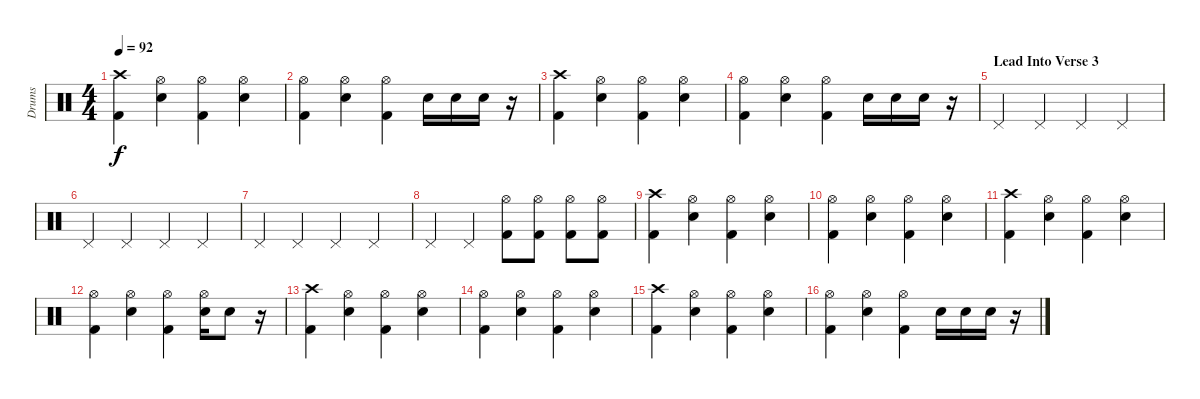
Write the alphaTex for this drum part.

\track ("Drums" "Drums") {instrument percussion}
\staff {score}
\articulation defaults
\ts (4 4)
\tempo 92
\clef neutral
\ks c
("Crash high (hit)" "Kick (hit) 2").4{dy f} ("Hi-Hat (open)" "Electric Snare (hit)").4 ("Hi-Hat (open)" "Kick (hit) 2").4 ("Hi-Hat (open)" "Electric Snare (hit)").4 |
("Hi-Hat (open)" "Kick (hit) 2").4 ("Hi-Hat (open)" "Electric Snare (hit)").4 ("Hi-Hat (open)" "Kick (hit) 2").4 "Electric Snare (hit)".16 "Electric Snare (hit)".16 "Electric Snare (hit)".16 r.16 |
("Crash high (hit)" "Kick (hit) 2").4 ("Hi-Hat (open)" "Electric Snare (hit)").4 ("Hi-Hat (open)" "Kick (hit) 2").4 ("Hi-Hat (open)" "Electric Snare (hit)").4 |
("Hi-Hat (open)" "Kick (hit) 2").4 ("Hi-Hat (open)" "Electric Snare (hit)").4 ("Hi-Hat (open)" "Kick (hit) 2").4 "Electric Snare (hit)".16 "Electric Snare (hit)".16 "Electric Snare (hit)".16 r.16 |
\section ("" "Lead Into Verse 3")
"Pedal Hi-Hat (hit)".4 "Pedal Hi-Hat (hit)".4 "Pedal Hi-Hat (hit)".4 "Pedal Hi-Hat (hit)".4 |
"Pedal Hi-Hat (hit)".4 "Pedal Hi-Hat (hit)".4 "Pedal Hi-Hat (hit)".4 "Pedal Hi-Hat (hit)".4 |
"Pedal Hi-Hat (hit)".4 "Pedal Hi-Hat (hit)".4 "Pedal Hi-Hat (hit)".4 "Pedal Hi-Hat (hit)".4 |
"Pedal Hi-Hat (hit)".4 "Pedal Hi-Hat (hit)".4 ("Hi-Hat (open)" "Kick (hit) 2").8 ("Hi-Hat (open)" "Kick (hit) 2").8 ("Hi-Hat (open)" "Kick (hit) 2").8 ("Hi-Hat (open)" "Kick (hit) 2").8 |
("Crash high (hit)" "Kick (hit) 2").4 ("Hi-Hat (open)" "Electric Snare (hit)").4 ("Hi-Hat (open)" "Kick (hit) 2").4 ("Hi-Hat (open)" "Electric Snare (hit)").4 |
("Hi-Hat (open)" "Kick (hit) 2").4 ("Hi-Hat (open)" "Electric Snare (hit)").4 ("Hi-Hat (open)" "Kick (hit) 2").4 ("Hi-Hat (open)" "Electric Snare (hit)").4 |
("Crash high (hit)" "Kick (hit) 2").4 ("Hi-Hat (open)" "Electric Snare (hit)").4 ("Hi-Hat (open)" "Kick (hit) 2").4 ("Hi-Hat (open)" "Electric Snare (hit)").4 |
("Hi-Hat (open)" "Kick (hit) 2").4 ("Hi-Hat (open)" "Electric Snare (hit)").4 ("Hi-Hat (open)" "Kick (hit) 2").4 ("Hi-Hat (open)" "Electric Snare (hit)").16 "Electric Snare (hit)".8 r.16 |
("Crash high (hit)" "Kick (hit) 2").4 ("Hi-Hat (open)" "Electric Snare (hit)").4 ("Hi-Hat (open)" "Kick (hit) 2").4 ("Hi-Hat (open)" "Electric Snare (hit)").4 |
("Hi-Hat (open)" "Kick (hit) 2").4 ("Hi-Hat (open)" "Electric Snare (hit)").4 ("Hi-Hat (open)" "Kick (hit) 2").4 ("Hi-Hat (open)" "Electric Snare (hit)").4 |
("Crash high (hit)" "Kick (hit) 2").4 ("Hi-Hat (open)" "Electric Snare (hit)").4 ("Hi-Hat (open)" "Kick (hit) 2").4 ("Hi-Hat (open)" "Electric Snare (hit)").4 |
("Hi-Hat (open)" "Kick (hit) 2").4 ("Hi-Hat (open)" "Electric Snare (hit)").4 ("Hi-Hat (open)" "Kick (hit) 2").4 "Electric Snare (hit)".16 "Electric Snare (hit)".16 "Electric Snare (hit)".16 r.16
